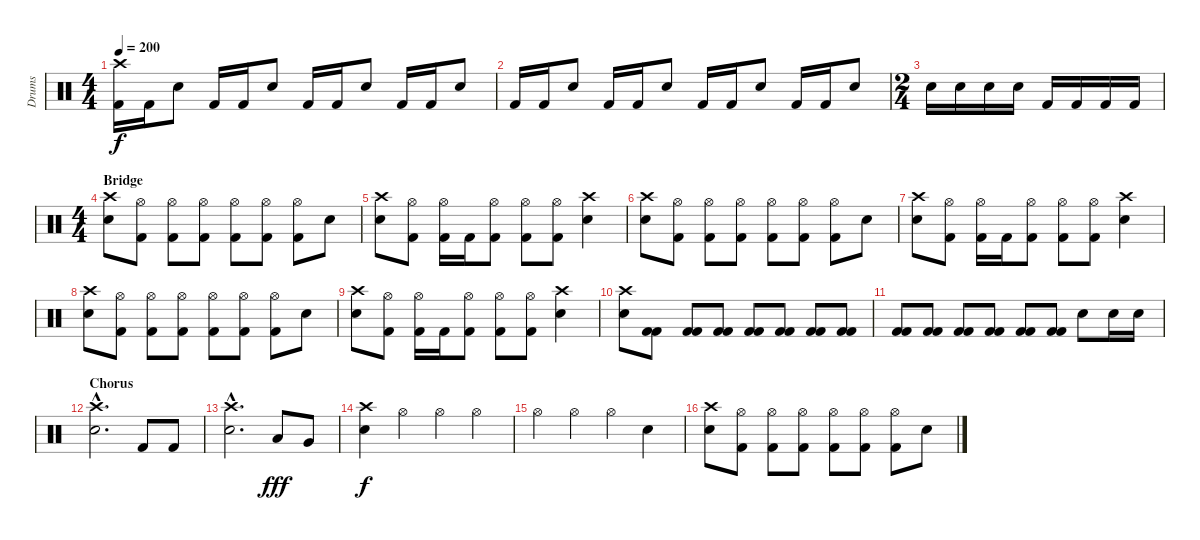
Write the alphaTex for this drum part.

\track ("Drums" "Drums") {instrument percussion}
\staff {score}
\articulation defaults
\ts (4 4)
\tempo 200
\clef neutral
\ks c
("Crash high (hit)" "Kick (hit) 2").16{dy f} "Kick (hit) 2".16 "Snare (hit) 2".8 "Kick (hit) 2".16 "Kick (hit) 2".16 "Snare (hit) 2".8 "Kick (hit) 2".16 "Kick (hit) 2".16 "Snare (hit) 2".8 "Kick (hit) 2".16 "Kick (hit) 2".16 "Snare (hit) 2".8 |
"Kick (hit) 2".16 "Kick (hit) 2".16 "Snare (hit) 2".8 "Kick (hit) 2".16 "Kick (hit) 2".16 "Snare (hit) 2".8 "Kick (hit) 2".16 "Kick (hit) 2".16 "Snare (hit) 2".8 "Kick (hit) 2".16 "Kick (hit) 2".16 "Snare (hit) 2".8 |
\ts (2 4)
"Snare (hit) 2".16 "Snare (hit) 2".16 "Snare (hit) 2".16 "Snare (hit) 2".16 "Kick (hit) 2".16 "Kick (hit) 2".16 "Kick (hit) 2".16 "Kick (hit) 2".16 |
\ts (4 4)
\section ("" "Bridge")
("Crash high (hit)" "Snare (hit) 2").8 ("Hi-Hat (open)" "Kick (hit) 2").8 ("Hi-Hat (open)" "Kick (hit) 2").8 ("Hi-Hat (open)" "Kick (hit) 2").8 ("Hi-Hat (open)" "Kick (hit) 2").8 ("Hi-Hat (open)" "Kick (hit) 2").8 ("Hi-Hat (open)" "Kick (hit) 2").8 "Snare (hit) 2".8 |
("Crash high (hit)" "Snare (hit) 2").8 ("Hi-Hat (open)" "Kick (hit) 2").8 ("Hi-Hat (open)" "Kick (hit) 2").16 "Kick (hit) 2".16 ("Hi-Hat (open)" "Kick (hit) 2").8 ("Hi-Hat (open)" "Kick (hit) 2").8 ("Hi-Hat (open)" "Kick (hit) 2").8 ("Crash high (hit)" "Snare (hit) 2").4 |
("Crash high (hit)" "Snare (hit) 2").8 ("Hi-Hat (open)" "Kick (hit) 2").8 ("Hi-Hat (open)" "Kick (hit) 2").8 ("Hi-Hat (open)" "Kick (hit) 2").8 ("Hi-Hat (open)" "Kick (hit) 2").8 ("Hi-Hat (open)" "Kick (hit) 2").8 ("Hi-Hat (open)" "Kick (hit) 2").8 "Snare (hit) 2".8 |
("Crash high (hit)" "Snare (hit) 2").8 ("Hi-Hat (open)" "Kick (hit) 2").8 ("Hi-Hat (open)" "Kick (hit) 2").16 "Kick (hit) 2".16 ("Hi-Hat (open)" "Kick (hit) 2").8 ("Hi-Hat (open)" "Kick (hit) 2").8 ("Hi-Hat (open)" "Kick (hit) 2").8 ("Crash high (hit)" "Snare (hit) 2").4 |
("Crash high (hit)" "Snare (hit) 2").8 ("Hi-Hat (open)" "Kick (hit) 2").8 ("Hi-Hat (open)" "Kick (hit) 2").8 ("Hi-Hat (open)" "Kick (hit) 2").8 ("Hi-Hat (open)" "Kick (hit) 2").8 ("Hi-Hat (open)" "Kick (hit) 2").8 ("Hi-Hat (open)" "Kick (hit) 2").8 "Snare (hit) 2".8 |
("Crash high (hit)" "Snare (hit) 2").8 ("Hi-Hat (open)" "Kick (hit) 2").8 ("Hi-Hat (open)" "Kick (hit) 2").16 "Kick (hit) 2".16 ("Hi-Hat (open)" "Kick (hit) 2").8 ("Hi-Hat (open)" "Kick (hit) 2").8 ("Hi-Hat (open)" "Kick (hit) 2").8 ("Crash high (hit)" "Snare (hit) 2").4 |
("Crash high (hit)" "Snare (hit) 2").8 ("Kick (hit) 2" "Kick (hit) 2").8 ("Kick (hit) 2" "Kick (hit) 2").8 ("Kick (hit) 2" "Kick (hit) 2").8 ("Kick (hit) 2" "Kick (hit) 2").8 ("Kick (hit) 2" "Kick (hit) 2").8 ("Kick (hit) 2" "Kick (hit) 2").8 ("Kick (hit) 2" "Kick (hit) 2").8 |
("Kick (hit) 2" "Kick (hit) 2").8 ("Kick (hit) 2" "Kick (hit) 2").8 ("Kick (hit) 2" "Kick (hit) 2").8 ("Kick (hit) 2" "Kick (hit) 2").8 ("Kick (hit) 2" "Kick (hit) 2").8 ("Kick (hit) 2" "Kick (hit) 2").8 "Snare (hit) 2".8 "Snare (hit) 2".16 "Snare (hit) 2".16 |
\section ("" "Chorus")
("Crash high (hit)"{hac} "Snare (hit) 2"{hac}).2{d} "Kick (hit) 2".8 "Kick (hit) 2".8 |
("Crash high (hit)"{hac} "Snare (hit) 2"{hac}).2{d} "Low Tom (hit)".8{dy fff} "Very Low Tom (hit)".8 |
("Crash high (hit)" "Snare (hit) 2").4{dy f} "Hi-Hat (open)".4 "Hi-Hat (open)".4 "Hi-Hat (open)".4 |
"Hi-Hat (open)".4 "Hi-Hat (open)".4 "Hi-Hat (open)".4 "Snare (hit) 2".4 |
("Crash high (hit)" "Snare (hit) 2").8 ("Hi-Hat (open)" "Kick (hit) 2").8 ("Hi-Hat (open)" "Kick (hit) 2").8 ("Hi-Hat (open)" "Kick (hit) 2").8 ("Hi-Hat (open)" "Kick (hit) 2").8 ("Hi-Hat (open)" "Kick (hit) 2").8 ("Hi-Hat (open)" "Kick (hit) 2").8 "Snare (hit) 2".8
